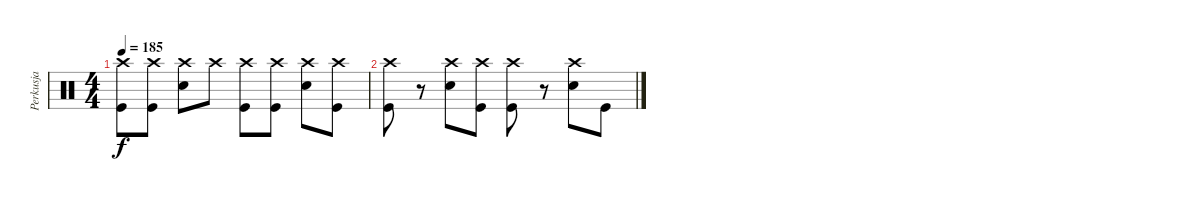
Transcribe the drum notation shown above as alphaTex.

\track ("Perkusja" "Perkusja") {instrument percussion}
\staff {score}
\articulation defaults
\ts (4 4)
\tempo 185
\clef neutral
\ks c
("Crash high (hit)" "Kick (hit)").8{dy f} ("Crash high (hit)" "Kick (hit)").8 ("Crash high (hit)" "Snare (hit) 2").8 "Crash high (hit)".8 ("Crash high (hit)" "Kick (hit)").8 ("Crash high (hit)" "Kick (hit)").8 ("Crash high (hit)" "Snare (hit) 2").8 ("Crash high (hit)" "Kick (hit)").8 |
("Crash high (hit)" "Kick (hit)").8 r.8 ("Crash high (hit)" "Snare (hit) 2").8 ("Crash high (hit)" "Kick (hit)").8 ("Crash high (hit)" "Kick (hit)").8 r.8 ("Crash high (hit)" "Snare (hit) 2").8 "Kick (hit)".8
